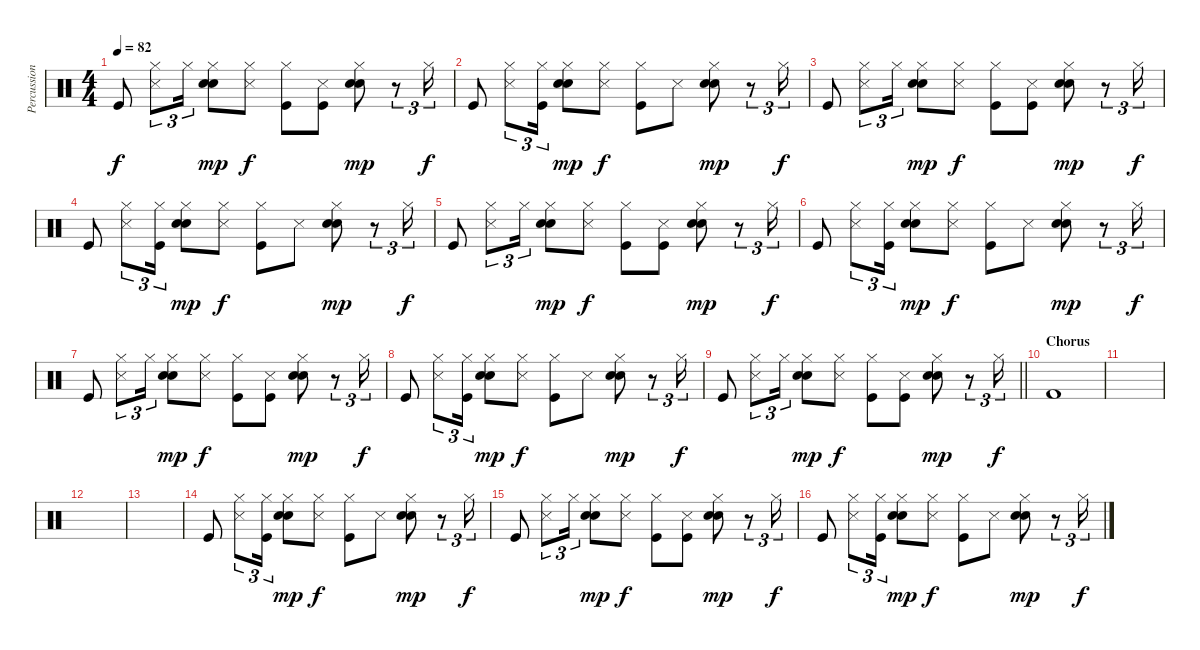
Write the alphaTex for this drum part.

\track ("Percussion" "Percussion") {instrument percussion}
\staff {score}
\articulation defaults
\ts (4 4)
\tempo 82
\clef neutral
\ks c "Kick (hit)".8{dy f}
("Hi-Hat (closed)" "Snare (side stick) 3").8{tu (3 2)} "Hi-Hat (closed)".16{tu (3 2)} ("Hi-Hat (closed)" "Hand Clap (hit)" "Electric Snare (hit)").8{dy mp} ("Hi-Hat (closed)" "Snare (side stick) 3").8{dy f} ("Hi-Hat (closed)" "Kick (hit)").8 ("Snare (side stick) 3" "Kick (hit)").8 ("Hi-Hat (closed)" "Hand Clap (hit)" "Electric Snare (hit)").8{dy mp} r.8{tu (3 2)} "Hi-Hat (closed)".16{tu (3 2) dy f} |
"Kick (hit)".8{volume 13} ("Hi-Hat (closed)" "Snare (side stick) 3").8{tu (3 2)} ("Hi-Hat (closed)" "Kick (hit)").16{tu (3 2)} ("Hi-Hat (closed)" "Hand Clap (hit)" "Electric Snare (hit)").8{dy mp} ("Hi-Hat (closed)" "Snare (side stick) 3").8{dy f} ("Hi-Hat (closed)" "Kick (hit)").8 "Snare (side stick) 3".8 ("Hi-Hat (closed)" "Hand Clap (hit)" "Electric Snare (hit)").8{dy mp} r.8{tu (3 2)} "Hi-Hat (closed)".16{tu (3 2) dy f} |
"Kick (hit)".8 ("Hi-Hat (closed)" "Snare (side stick) 3").8{tu (3 2)} "Hi-Hat (closed)".16{tu (3 2)} ("Hi-Hat (closed)" "Hand Clap (hit)" "Electric Snare (hit)").8{dy mp} ("Hi-Hat (closed)" "Snare (side stick) 3").8{dy f} ("Hi-Hat (closed)" "Kick (hit)").8 ("Snare (side stick) 3" "Kick (hit)").8 ("Hi-Hat (closed)" "Hand Clap (hit)" "Electric Snare (hit)").8{dy mp} r.8{tu (3 2)} "Hi-Hat (closed)".16{tu (3 2) dy f} |
"Kick (hit)".8{volume 13} ("Hi-Hat (closed)" "Snare (side stick) 3").8{tu (3 2)} ("Hi-Hat (closed)" "Kick (hit)").16{tu (3 2)} ("Hi-Hat (closed)" "Hand Clap (hit)" "Electric Snare (hit)").8{dy mp} ("Hi-Hat (closed)" "Snare (side stick) 3").8{dy f} ("Hi-Hat (closed)" "Kick (hit)").8 "Snare (side stick) 3".8 ("Hi-Hat (closed)" "Hand Clap (hit)" "Electric Snare (hit)").8{dy mp} r.8{tu (3 2)} "Hi-Hat (closed)".16{tu (3 2) dy f} |
"Kick (hit)".8 ("Hi-Hat (closed)" "Snare (side stick) 3").8{tu (3 2)} "Hi-Hat (closed)".16{tu (3 2)} ("Hi-Hat (closed)" "Hand Clap (hit)" "Electric Snare (hit)").8{dy mp} ("Hi-Hat (closed)" "Snare (side stick) 3").8{dy f} ("Hi-Hat (closed)" "Kick (hit)").8 ("Snare (side stick) 3" "Kick (hit)").8 ("Hi-Hat (closed)" "Hand Clap (hit)" "Electric Snare (hit)").8{dy mp} r.8{tu (3 2)} "Hi-Hat (closed)".16{tu (3 2) dy f} |
"Kick (hit)".8{volume 13} ("Hi-Hat (closed)" "Snare (side stick) 3").8{tu (3 2)} ("Hi-Hat (closed)" "Kick (hit)").16{tu (3 2)} ("Hi-Hat (closed)" "Hand Clap (hit)" "Electric Snare (hit)").8{dy mp} ("Hi-Hat (closed)" "Snare (side stick) 3").8{dy f} ("Hi-Hat (closed)" "Kick (hit)").8 "Snare (side stick) 3".8 ("Hi-Hat (closed)" "Hand Clap (hit)" "Electric Snare (hit)").8{dy mp} r.8{tu (3 2)} "Hi-Hat (closed)".16{tu (3 2) dy f} |
"Kick (hit)".8 ("Hi-Hat (closed)" "Snare (side stick) 3").8{tu (3 2)} "Hi-Hat (closed)".16{tu (3 2)} ("Hi-Hat (closed)" "Hand Clap (hit)" "Electric Snare (hit)").8{dy mp} ("Hi-Hat (closed)" "Snare (side stick) 3").8{dy f} ("Hi-Hat (closed)" "Kick (hit)").8 ("Snare (side stick) 3" "Kick (hit)").8 ("Hi-Hat (closed)" "Hand Clap (hit)" "Electric Snare (hit)").8{dy mp} r.8{tu (3 2)} "Hi-Hat (closed)".16{tu (3 2) dy f} |
"Kick (hit)".8{volume 13} ("Hi-Hat (closed)" "Snare (side stick) 3").8{tu (3 2)} ("Hi-Hat (closed)" "Kick (hit)").16{tu (3 2)} ("Hi-Hat (closed)" "Hand Clap (hit)" "Electric Snare (hit)").8{dy mp} ("Hi-Hat (closed)" "Snare (side stick) 3").8{dy f} ("Hi-Hat (closed)" "Kick (hit)").8 "Snare (side stick) 3".8 ("Hi-Hat (closed)" "Hand Clap (hit)" "Electric Snare (hit)").8{dy mp} r.8{tu (3 2)} "Hi-Hat (closed)".16{tu (3 2) dy f} |
\barLineRight lightlight "Kick (hit)".8
("Hi-Hat (closed)" "Snare (side stick) 3").8{tu (3 2)} "Hi-Hat (closed)".16{tu (3 2)} ("Hi-Hat (closed)" "Hand Clap (hit)" "Electric Snare (hit)").8{dy mp} ("Hi-Hat (closed)" "Snare (side stick) 3").8{dy f} ("Hi-Hat (closed)" "Kick (hit)").8 ("Snare (side stick) 3" "Kick (hit)").8 ("Hi-Hat (closed)" "Hand Clap (hit)" "Electric Snare (hit)").8{dy mp} r.8{tu (3 2)} "Hi-Hat (closed)".16{tu (3 2) dy f} |
\section ("" "Chorus")
"Kick (hit) 2".1 |
|
|
|
"Kick (hit)".8 ("Hi-Hat (closed)" "Snare (side stick) 3").8{tu (3 2)} ("Hi-Hat (closed)" "Kick (hit)").16{tu (3 2)} ("Hi-Hat (closed)" "Hand Clap (hit)" "Electric Snare (hit)").8{dy mp} ("Hi-Hat (closed)" "Snare (side stick) 3").8{dy f} ("Hi-Hat (closed)" "Kick (hit)").8 "Snare (side stick) 3".8 ("Hi-Hat (closed)" "Hand Clap (hit)" "Electric Snare (hit)").8{dy mp} r.8{tu (3 2)} "Hi-Hat (closed)".16{tu (3 2) dy f} |
"Kick (hit)".8 ("Hi-Hat (closed)" "Snare (side stick) 3").8{tu (3 2)} "Hi-Hat (closed)".16{tu (3 2)} ("Hi-Hat (closed)" "Hand Clap (hit)" "Electric Snare (hit)").8{dy mp} ("Hi-Hat (closed)" "Snare (side stick) 3").8{dy f} ("Hi-Hat (closed)" "Kick (hit)").8 ("Snare (side stick) 3" "Kick (hit)").8 ("Hi-Hat (closed)" "Hand Clap (hit)" "Electric Snare (hit)").8{dy mp} r.8{tu (3 2)} "Hi-Hat (closed)".16{tu (3 2) dy f} |
"Kick (hit)".8 ("Hi-Hat (closed)" "Snare (side stick) 3").8{tu (3 2)} ("Hi-Hat (closed)" "Kick (hit)").16{tu (3 2)} ("Hi-Hat (closed)" "Hand Clap (hit)" "Electric Snare (hit)").8{dy mp} ("Hi-Hat (closed)" "Snare (side stick) 3").8{dy f} ("Hi-Hat (closed)" "Kick (hit)").8 "Snare (side stick) 3".8 ("Hi-Hat (closed)" "Hand Clap (hit)" "Electric Snare (hit)").8{dy mp} r.8{tu (3 2)} "Hi-Hat (closed)".16{tu (3 2) dy f}
